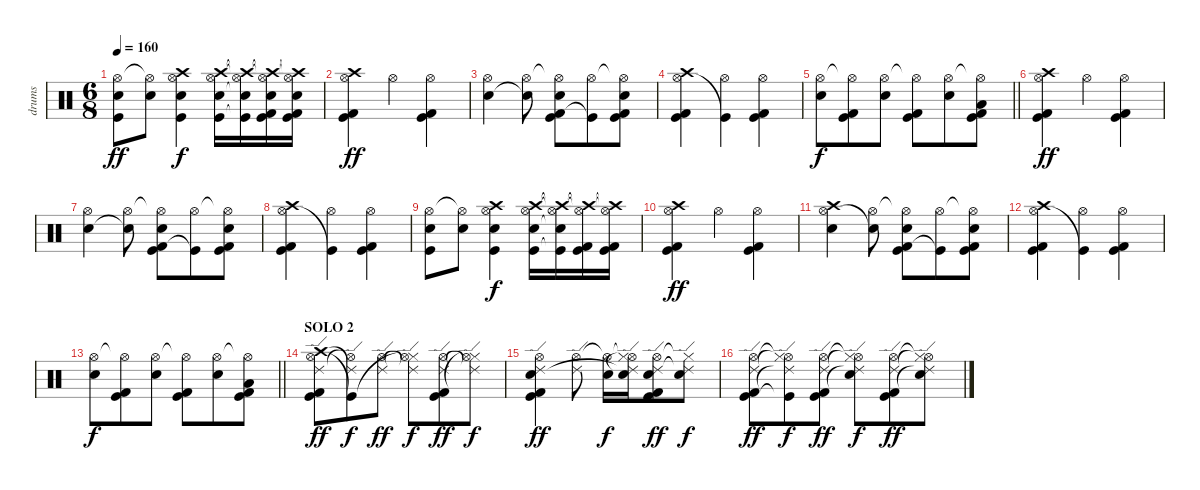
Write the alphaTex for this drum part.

\track ("drums" "drums") {instrument percussion}
\staff {score}
\articulation defaults
\ts (6 8)
\tempo 160
\clef neutral
\ks c
("Hi-Hat (open)" "Electric Snare (hit)" "Kick (hit)").8{dy ff} ("Hi-Hat (open)"{t} "Electric Snare (hit)").8 ("Crash high (hit)" "Hi-Hat (open)" "Electric Snare (hit)" "Kick (hit)").4{dy f} ("Crash high (hit)" "Hi-Hat (open)" "Electric Snare (hit)" "Kick (hit)").16 ("Crash high (hit)"{t} "Hi-Hat (open)"{t} "Electric Snare (hit)"{t} "Kick (hit)"{t}).16 ("Crash high (hit)"{t} "Hi-Hat (open)"{t} "Electric Snare (hit)" "Kick (hit) 2" "Kick (hit)").16 ("Crash high (hit)"{t} "Hi-Hat (open)"{t} "Electric Snare (hit)" "Kick (hit) 2" "Kick (hit)").16 |
("Crash high (hit)" "Hi-Hat (open)" "Kick (hit) 2" "Kick (hit)").4{dy ff} "Hi-Hat (open)".4 ("Hi-Hat (open)" "Kick (hit) 2" "Kick (hit)").4 |
("Hi-Hat (open)" "Electric Snare (hit)").4 ("Hi-Hat (open)" "Electric Snare (hit)"{t}).8 ("Hi-Hat (open)"{t} "Kick (hit) 2" "Electric Snare (hit)" "Kick (hit)").8 ("Hi-Hat (open)" "Kick (hit)"{t}).8 ("Hi-Hat (open)"{t} "Kick (hit) 2" "Electric Snare (hit)" "Kick (hit)").8 |
("Crash high (hit)" "Hi-Hat (open)" "Kick (hit) 2" "Kick (hit)").4 ("Hi-Hat (open)" "Kick (hit)"{t}).4 ("Hi-Hat (open)" "Kick (hit) 2" "Kick (hit)").4 |
\barLineRight lightlight
("Hi-Hat (open)" "Electric Snare (hit)").8{dy f} ("Hi-Hat (open)"{t} "Kick (hit)" "Kick (hit) 2").8 ("Hi-Hat (open)" "Electric Snare (hit)").8 ("Hi-Hat (open)"{t} "Kick (hit)" "Kick (hit) 2").8 ("Hi-Hat (open)" "Electric Snare (hit)").8 ("Hi-Hat (open)"{t} "Low Floor Tom (hit)" "Kick (hit)" "Kick (hit) 2").8 |
("Crash high (hit)" "Hi-Hat (open)" "Kick (hit) 2" "Kick (hit)").4{dy ff} "Hi-Hat (open)".4 ("Hi-Hat (open)" "Kick (hit) 2" "Kick (hit)").4 |
("Hi-Hat (open)" "Electric Snare (hit)").4 ("Hi-Hat (open)" "Electric Snare (hit)"{t}).8 ("Hi-Hat (open)"{t} "Kick (hit) 2" "Electric Snare (hit)" "Kick (hit)").8 ("Hi-Hat (open)" "Kick (hit)"{t}).8 ("Hi-Hat (open)"{t} "Kick (hit) 2" "Electric Snare (hit)" "Kick (hit)").8 |
("Crash high (hit)" "Hi-Hat (open)" "Kick (hit) 2" "Kick (hit)").4 ("Hi-Hat (open)" "Kick (hit)"{t}).4 ("Hi-Hat (open)" "Kick (hit) 2" "Kick (hit)").4 |
("Hi-Hat (open)" "Electric Snare (hit)" "Kick (hit)").8 ("Hi-Hat (open)"{t} "Electric Snare (hit)").8 ("Crash high (hit)" "Hi-Hat (open)" "Electric Snare (hit)" "Kick (hit)").4{dy f} ("Crash high (hit)" "Hi-Hat (open)" "Electric Snare (hit)" "Kick (hit)").16 ("Crash high (hit)"{t} "Hi-Hat (open)"{t} "Electric Snare (hit)"{t} "Kick (hit)"{t}).16 ("Crash high (hit)"{t} "Hi-Hat (open)"{t} "Kick (hit) 2" "Kick (hit)").16 ("Crash high (hit)"{t} "Hi-Hat (open)"{t} "Kick (hit) 2" "Kick (hit)").16 |
("Crash high (hit)" "Hi-Hat (open)" "Kick (hit) 2" "Kick (hit)").4{dy ff} "Hi-Hat (open)".4 ("Hi-Hat (open)" "Kick (hit) 2" "Kick (hit)").4 |
("Crash high (hit)" "Hi-Hat (open)" "Electric Snare (hit)").4 ("Hi-Hat (open)" "Electric Snare (hit)"{t}).8 ("Hi-Hat (open)"{t} "Kick (hit) 2" "Electric Snare (hit)" "Kick (hit)").8 ("Hi-Hat (open)" "Kick (hit)"{t}).8 ("Hi-Hat (open)"{t} "Kick (hit) 2" "Electric Snare (hit)" "Kick (hit)").8 |
("Crash high (hit)" "Hi-Hat (open)" "Kick (hit) 2" "Kick (hit)").4 ("Hi-Hat (open)" "Kick (hit)"{t}).4 ("Hi-Hat (open)" "Kick (hit) 2" "Kick (hit)").4 |
\barLineRight lightlight
("Hi-Hat (open)" "Electric Snare (hit)").8{dy f} ("Hi-Hat (open)"{t} "Kick (hit)" "Kick (hit) 2").8 ("Hi-Hat (open)" "Electric Snare (hit)").8 ("Hi-Hat (open)"{t} "Kick (hit)" "Kick (hit) 2").8 ("Hi-Hat (open)" "Electric Snare (hit)").8 ("Hi-Hat (open)"{t} "Low Floor Tom (hit)" "Kick (hit)" "Kick (hit) 2").8 |
\section ("" "SOLO 2")
("Crash high (hit)" "Ride (edge) 2" "Hi-Hat (open)" "Kick (hit) 2" "Kick (hit)").8{dy ff} ("Ride (edge) 2"{t} "Hi-Hat (open)"{t} "Kick (hit)"{t}).8{dy f} ("Ride (edge) 2" "Hi-Hat (open)").8{dy ff} ("Hi-Hat (closed)"{t} "Ride (edge) 2"{t} "Hi-Hat (open)"{t}).8{dy f} ("Ride (edge) 2" "Hi-Hat (open)" "Kick (hit) 2" "Kick (hit)").8{dy ff} ("Hi-Hat (closed)"{t} "Ride (edge) 2"{t} "Hi-Hat (open)"{t}).8{dy f} |
("Hi-Hat (open)" "Ride (edge) 2" "Snare (hit) 2" "Kick (hit) 2" "Kick (hit)").4{dy ff} ("Hi-Hat (open)" "Ride (edge) 2").8 ("Hi-Hat (open)"{t} "Electric Snare (hit)").16{dy f} ("Hi-Hat (open)"{t} "Hi-Hat (closed)"{t} "Ride (edge) 2"{t} "Electric Snare (hit)").16 ("Hi-Hat (open)" "Ride (edge) 2" "Electric Snare (hit)" "Kick (hit) 2" "Kick (hit)").8{dy ff} ("Hi-Hat (closed)"{t} "Ride (edge) 2"{t} "Electric Snare (hit)").8{dy f} |
("Hi-Hat (open)" "Ride (edge) 2" "Kick (hit) 2" "Kick (hit)").8{dy ff} ("Hi-Hat (open)"{t} "Hi-Hat (closed)"{t} "Ride (edge) 2"{t} "Kick (hit)"{t}).8{dy f} ("Hi-Hat (open)" "Ride (edge) 2" "Kick (hit) 2" "Kick (hit)").8{dy ff} ("Hi-Hat (open)"{t} "Hi-Hat (closed)"{t} "Ride (edge) 2"{t} "Electric Snare (hit)").8{dy f} ("Hi-Hat (open)" "Ride (edge) 2" "Kick (hit) 2" "Kick (hit)").8{dy ff} ("Hi-Hat (open)"{t} "Hi-Hat (closed)"{t} "Ride (edge) 2"{t} "Electric Snare (hit)").8
